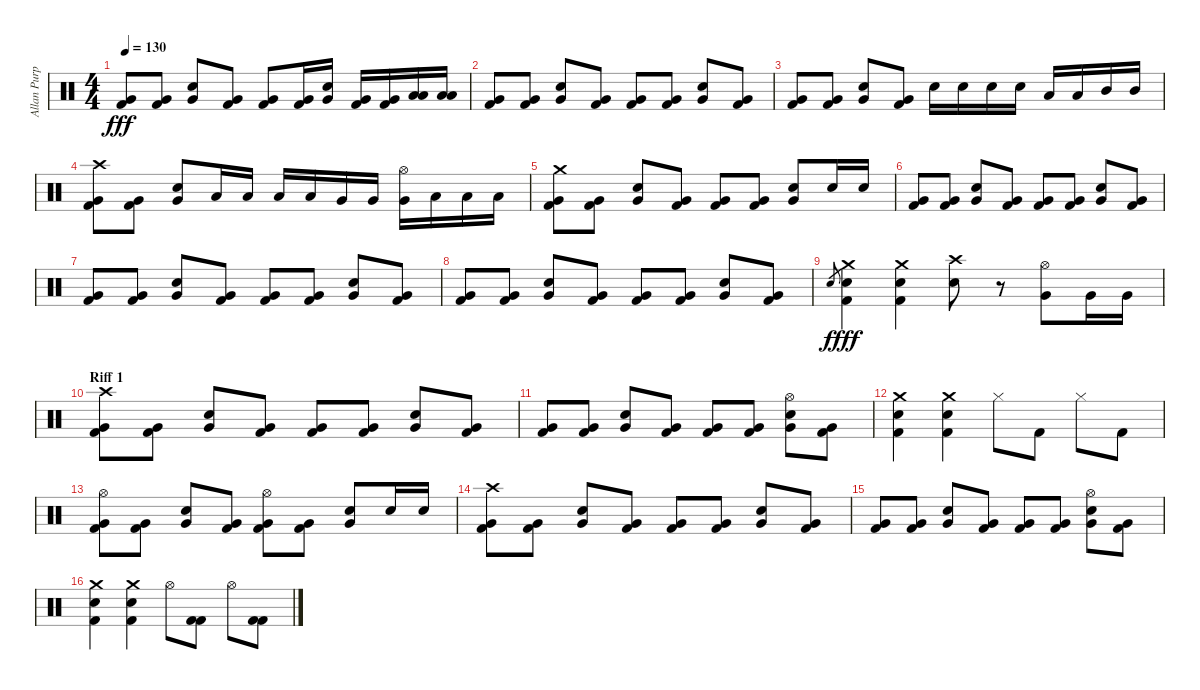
\track ("Allan Purple" "Allan Purp") {instrument percussion}
\staff {score}
\articulation defaults
\ts (4 4)
\tempo 130
\clef neutral
\ks c
("Kick (hit) 2" "Very Low Tom (hit)").8{dy fff} ("Kick (hit) 2" "Very Low Tom (hit)").8 ("Electric Snare (hit)" "Very Low Tom (hit)").8 ("Kick (hit) 2" "Very Low Tom (hit)").8 ("Kick (hit) 2" "Very Low Tom (hit)").8 ("Kick (hit) 2" "Very Low Tom (hit)").16 ("Electric Snare (hit)" "Very Low Tom (hit)").16 ("Kick (hit) 2" "Very Low Tom (hit)").16 ("Kick (hit) 2" "Very Low Tom (hit)").16 ("Low Tom (hit)" "Low Tom (hit)").16 ("Low Tom (hit)" "Low Tom (hit)").16 |
("Kick (hit) 2" "Very Low Tom (hit)").8 ("Kick (hit) 2" "Very Low Tom (hit)").8 ("Electric Snare (hit)" "Very Low Tom (hit)").8 ("Kick (hit) 2" "Very Low Tom (hit)").8 ("Kick (hit) 2" "Very Low Tom (hit)").8 ("Kick (hit) 2" "Very Low Tom (hit)").8 ("Electric Snare (hit)" "Very Low Tom (hit)").8 ("Kick (hit) 2" "Very Low Tom (hit)").8 |
("Kick (hit) 2" "Very Low Tom (hit)").8 ("Kick (hit) 2" "Very Low Tom (hit)").8 ("Electric Snare (hit)" "Very Low Tom (hit)").8 ("Kick (hit) 2" "Very Low Tom (hit)").8 "Electric Snare (hit)".16 "Electric Snare (hit)".16 "Snare (hit) 2".16 "Snare (hit) 2".16 "Low Tom (hit)".16 "Low Tom (hit)".16 "Mid Tom (hit)".16 "Mid Tom (hit)".16 |
("Crash high (hit)" "Kick (hit) 2" "Very Low Tom (hit)").8 ("Kick (hit) 2" "Very Low Tom (hit)").8 ("Electric Snare (hit)" "Very Low Tom (hit)").8 "Low Tom (hit)".16 "Low Tom (hit)".16 "Low Tom (hit)".16 "Low Tom (hit)".16 "Very Low Tom (hit)".16 "Very Low Tom (hit)".16 ("Hi-Hat (open)" "Very Low Tom (hit)").16 "Low Floor Tom (hit)".16 "Low Floor Tom (hit)".16 "Low Floor Tom (hit)".16 |
("Crash medium (hit)" "Kick (hit) 2" "Very Low Tom (hit)").8 ("Kick (hit) 2" "Very Low Tom (hit)").8 ("Electric Snare (hit)" "Very Low Tom (hit)").8 ("Kick (hit) 2" "Very Low Tom (hit)").8 ("Kick (hit) 2" "Very Low Tom (hit)").8 ("Kick (hit) 2" "Very Low Tom (hit)").8 ("Electric Snare (hit)" "Very Low Tom (hit)").8 "Electric Snare (hit)".16 "Electric Snare (hit)".16 |
("Kick (hit) 2" "Very Low Tom (hit)").8 ("Kick (hit) 2" "Very Low Tom (hit)").8 ("Electric Snare (hit)" "Very Low Tom (hit)").8 ("Kick (hit) 2" "Very Low Tom (hit)").8 ("Kick (hit) 2" "Very Low Tom (hit)").8 ("Kick (hit) 2" "Very Low Tom (hit)").8 ("Electric Snare (hit)" "Very Low Tom (hit)").8 ("Kick (hit) 2" "Very Low Tom (hit)").8 |
("Kick (hit) 2" "Very Low Tom (hit)").8 ("Kick (hit) 2" "Very Low Tom (hit)").8 ("Electric Snare (hit)" "Very Low Tom (hit)").8 ("Kick (hit) 2" "Very Low Tom (hit)").8 ("Kick (hit) 2" "Very Low Tom (hit)").8 ("Kick (hit) 2" "Very Low Tom (hit)").8 ("Electric Snare (hit)" "Very Low Tom (hit)").8 ("Kick (hit) 2" "Very Low Tom (hit)").8 |
("Kick (hit) 2" "Very Low Tom (hit)").8 ("Kick (hit) 2" "Very Low Tom (hit)").8 ("Electric Snare (hit)" "Very Low Tom (hit)").8 ("Kick (hit) 2" "Very Low Tom (hit)").8 ("Kick (hit) 2" "Very Low Tom (hit)").8 ("Kick (hit) 2" "Very Low Tom (hit)").8 ("Electric Snare (hit)" "Very Low Tom (hit)").8 ("Kick (hit) 2" "Very Low Tom (hit)").8 |
"Electric Snare (hit)".8{gr dy f} ("Crash medium (hit)" "Kick (hit) 2" "Electric Snare (hit)").4{dy fff} ("Crash medium (hit)" "Kick (hit) 2" "Electric Snare (hit)").4 ("Crash high (hit)" "Snare (hit) 2").8 r.8 ("Hi-Hat (open)" "Very Low Tom (hit)").8 "Very Low Tom (hit)".16 "Very Low Tom (hit)".16 |
\section ("" "Riff 1")
("Crash high (hit)" "Kick (hit) 2" "Very Low Tom (hit)").8 ("Kick (hit) 2" "Very Low Tom (hit)").8 ("Electric Snare (hit)" "Very Low Tom (hit)").8 ("Kick (hit) 2" "Very Low Tom (hit)").8 ("Kick (hit) 2" "Very Low Tom (hit)").8 ("Kick (hit) 2" "Very Low Tom (hit)").8 ("Electric Snare (hit)" "Very Low Tom (hit)").8 ("Kick (hit) 2" "Very Low Tom (hit)").8 |
("Kick (hit) 2" "Very Low Tom (hit)").8 ("Kick (hit) 2" "Very Low Tom (hit)").8 ("Electric Snare (hit)" "Very Low Tom (hit)").8 ("Kick (hit) 2" "Very Low Tom (hit)").8 ("Kick (hit) 2" "Very Low Tom (hit)").8 ("Kick (hit) 2" "Very Low Tom (hit)").8 ("Hi-Hat (open)" "Electric Snare (hit)" "Very Low Tom (hit)").8 ("Kick (hit) 2" "Very Low Tom (hit)").8 |
("Crash medium (hit)" "Kick (hit) 2" "Electric Snare (hit)").4 ("Crash medium (hit)" "Kick (hit) 2" "Electric Snare (hit)").4 "Hi-Hat (closed)".8 "Kick (hit) 2".8 "Hi-Hat (closed)".8 "Kick (hit) 2".8 |
("Hi-Hat (open)" "Kick (hit) 2" "Very Low Tom (hit)").8 ("Kick (hit) 2" "Very Low Tom (hit)").8 ("Electric Snare (hit)" "Very Low Tom (hit)").8 ("Kick (hit) 2" "Very Low Tom (hit)").8 ("Hi-Hat (open)" "Kick (hit) 2" "Very Low Tom (hit)").8 ("Kick (hit) 2" "Very Low Tom (hit)").8 ("Electric Snare (hit)" "Very Low Tom (hit)").8 "Electric Snare (hit)".16 "Electric Snare (hit)".16 |
("Crash high (hit)" "Kick (hit) 2" "Very Low Tom (hit)").8 ("Kick (hit) 2" "Very Low Tom (hit)").8 ("Electric Snare (hit)" "Very Low Tom (hit)").8 ("Kick (hit) 2" "Very Low Tom (hit)").8 ("Kick (hit) 2" "Very Low Tom (hit)").8 ("Kick (hit) 2" "Very Low Tom (hit)").8 ("Electric Snare (hit)" "Very Low Tom (hit)").8 ("Kick (hit) 2" "Very Low Tom (hit)").8 |
("Kick (hit) 2" "Very Low Tom (hit)").8 ("Kick (hit) 2" "Very Low Tom (hit)").8 ("Electric Snare (hit)" "Very Low Tom (hit)").8 ("Kick (hit) 2" "Very Low Tom (hit)").8 ("Kick (hit) 2" "Very Low Tom (hit)").8 ("Kick (hit) 2" "Very Low Tom (hit)").8 ("Hi-Hat (open)" "Electric Snare (hit)" "Very Low Tom (hit)").8 ("Kick (hit) 2" "Very Low Tom (hit)").8 |
("Crash medium (hit)" "Kick (hit) 2" "Electric Snare (hit)").4 ("Crash medium (hit)" "Kick (hit) 2" "Electric Snare (hit)").4 "Hi-Hat (open)".8 ("Kick (hit) 2" "Kick (hit) 2").8 "Hi-Hat (open)".8 ("Kick (hit) 2" "Kick (hit) 2").8
